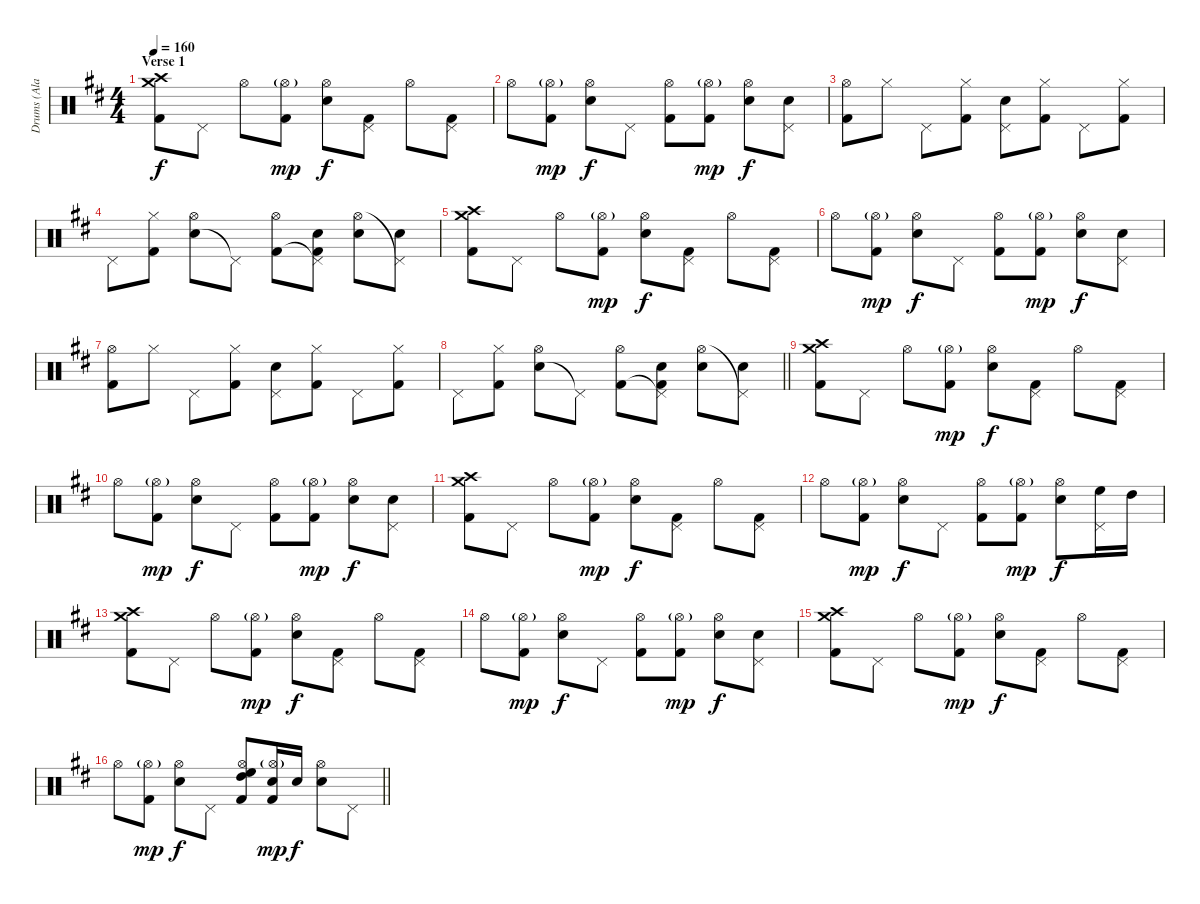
\track ("Drums (Ala Pyle)" "Drums (Ala") {instrument percussion}
\staff {score}
\articulation defaults
\ts (4 4)
\section ("" "Verse 1")
\tempo 160
\clef neutral
\ks d
("Crash medium (hit)" "Crash high (hit)" "Kick (hit) 2").8{dy f} "Pedal Hi-Hat (hit)".8 "Hi-Hat (open)".8 ("Hi-Hat (open)"{g} "Kick (hit) 2").8{dy mp} ("Snare (hit) 2" "Hi-Hat (open)").8{dy f} ("Pedal Hi-Hat (hit)" "Kick (hit) 2").8 "Hi-Hat (open)".8 ("Pedal Hi-Hat (hit)" "Kick (hit) 2").8 |
"Hi-Hat (open)".8 ("Hi-Hat (open)"{g} "Kick (hit) 2").8{dy mp} ("Snare (hit) 2" "Hi-Hat (open)").8{dy f} "Pedal Hi-Hat (hit)".8 ("Hi-Hat (open)" "Kick (hit) 2").8 ("Hi-Hat (open)"{g} "Kick (hit) 2").8{dy mp} ("Snare (hit) 2" "Hi-Hat (open)").8{dy f} ("Snare (hit) 2" "Pedal Hi-Hat (hit)").8 |
("Hi-Hat (open)" "Kick (hit) 2").8 "Hi-Hat (closed)".8 "Pedal Hi-Hat (hit)".8 ("Hi-Hat (closed)" "Kick (hit) 2").8 ("Snare (hit) 2" "Pedal Hi-Hat (hit)").8 ("Hi-Hat (closed)" "Kick (hit) 2").8 "Pedal Hi-Hat (hit)".8 ("Hi-Hat (closed)" "Kick (hit) 2").8 |
"Pedal Hi-Hat (hit)".8 ("Hi-Hat (closed)" "Kick (hit) 2").8 ("Snare (hit) 2" "Hi-Hat (open)").8 "Pedal Hi-Hat (hit)"{t}.8 ("Hi-Hat (open)" "Kick (hit) 2").8 ("Snare (hit) 2" "Pedal Hi-Hat (hit)"{t} "Kick (hit) 2").8 ("Snare (hit) 2" "Hi-Hat (open)").8 ("Snare (hit) 2" "Pedal Hi-Hat (hit)"{t}).8 |
("Crash medium (hit)" "Crash high (hit)" "Kick (hit) 2").8 "Pedal Hi-Hat (hit)".8 "Hi-Hat (open)".8 ("Hi-Hat (open)"{g} "Kick (hit) 2").8{dy mp} ("Snare (hit) 2" "Hi-Hat (open)").8{dy f} ("Pedal Hi-Hat (hit)" "Kick (hit) 2").8 "Hi-Hat (open)".8 ("Pedal Hi-Hat (hit)" "Kick (hit) 2").8 |
"Hi-Hat (open)".8 ("Hi-Hat (open)"{g} "Kick (hit) 2").8{dy mp} ("Snare (hit) 2" "Hi-Hat (open)").8{dy f} "Pedal Hi-Hat (hit)".8 ("Hi-Hat (open)" "Kick (hit) 2").8 ("Hi-Hat (open)"{g} "Kick (hit) 2").8{dy mp} ("Snare (hit) 2" "Hi-Hat (open)").8{dy f} ("Snare (hit) 2" "Pedal Hi-Hat (hit)").8 |
("Hi-Hat (open)" "Kick (hit) 2").8 "Hi-Hat (closed)".8 "Pedal Hi-Hat (hit)".8 ("Hi-Hat (closed)" "Kick (hit) 2").8 ("Snare (hit) 2" "Pedal Hi-Hat (hit)").8 ("Hi-Hat (closed)" "Kick (hit) 2").8 "Pedal Hi-Hat (hit)".8 ("Hi-Hat (closed)" "Kick (hit) 2").8 |
\barLineRight lightlight "Pedal Hi-Hat (hit)".8
("Hi-Hat (closed)" "Kick (hit) 2").8 ("Snare (hit) 2" "Hi-Hat (open)").8 "Pedal Hi-Hat (hit)"{t}.8 ("Hi-Hat (open)" "Kick (hit) 2").8 ("Snare (hit) 2" "Pedal Hi-Hat (hit)"{t} "Kick (hit) 2").8 ("Snare (hit) 2" "Hi-Hat (open)").8 ("Snare (hit) 2" "Pedal Hi-Hat (hit)"{t}).8 |
("Crash medium (hit)" "Crash high (hit)" "Kick (hit) 2").8 "Pedal Hi-Hat (hit)".8 "Hi-Hat (open)".8 ("Hi-Hat (open)"{g} "Kick (hit) 2").8{dy mp} ("Snare (hit) 2" "Hi-Hat (open)").8{dy f} ("Pedal Hi-Hat (hit)" "Kick (hit) 2").8 "Hi-Hat (open)".8 ("Pedal Hi-Hat (hit)" "Kick (hit) 2").8 |
"Hi-Hat (open)".8 ("Hi-Hat (open)"{g} "Kick (hit) 2").8{dy mp} ("Snare (hit) 2" "Hi-Hat (open)").8{dy f} "Pedal Hi-Hat (hit)".8 ("Hi-Hat (open)" "Kick (hit) 2").8 ("Hi-Hat (open)"{g} "Kick (hit) 2").8{dy mp} ("Snare (hit) 2" "Hi-Hat (open)").8{dy f} ("Snare (hit) 2" "Pedal Hi-Hat (hit)").8 |
("Crash medium (hit)" "Crash high (hit)" "Kick (hit) 2").8 "Pedal Hi-Hat (hit)".8 "Hi-Hat (open)".8 ("Hi-Hat (open)"{g} "Kick (hit) 2").8{dy mp} ("Snare (hit) 2" "Hi-Hat (open)").8{dy f} ("Pedal Hi-Hat (hit)" "Kick (hit) 2").8 "Hi-Hat (open)".8 ("Pedal Hi-Hat (hit)" "Kick (hit) 2").8 |
"Hi-Hat (open)".8 ("Hi-Hat (open)"{g} "Kick (hit) 2").8{dy mp} ("Snare (hit) 2" "Hi-Hat (open)").8{dy f} "Pedal Hi-Hat (hit)".8 ("Hi-Hat (open)" "Kick (hit) 2").8 ("Hi-Hat (open)"{g} "Kick (hit) 2").8{dy mp} ("Snare (hit) 2" "Hi-Hat (open)").8{dy f} ("Pedal Hi-Hat (hit)" "High Floor Tom (hit)").16 "High Tom (hit)".16 |
("Crash medium (hit)" "Crash high (hit)" "Kick (hit) 2").8 "Pedal Hi-Hat (hit)".8 "Hi-Hat (open)".8 ("Hi-Hat (open)"{g} "Kick (hit) 2").8{dy mp} ("Snare (hit) 2" "Hi-Hat (open)").8{dy f} ("Pedal Hi-Hat (hit)" "Kick (hit) 2").8 "Hi-Hat (open)".8 ("Pedal Hi-Hat (hit)" "Kick (hit) 2").8 |
"Hi-Hat (open)".8 ("Hi-Hat (open)"{g} "Kick (hit) 2").8{dy mp} ("Snare (hit) 2" "Hi-Hat (open)").8{dy f} "Pedal Hi-Hat (hit)".8 ("Hi-Hat (open)" "Kick (hit) 2").8 ("Hi-Hat (open)"{g} "Kick (hit) 2").8{dy mp} ("Snare (hit) 2" "Hi-Hat (open)").8{dy f} ("Snare (hit) 2" "Pedal Hi-Hat (hit)").8 |
("Crash medium (hit)" "Crash high (hit)" "Kick (hit) 2").8 "Pedal Hi-Hat (hit)".8 "Hi-Hat (open)".8 ("Hi-Hat (open)"{g} "Kick (hit) 2").8{dy mp} ("Snare (hit) 2" "Hi-Hat (open)").8{dy f} ("Pedal Hi-Hat (hit)" "Kick (hit) 2").8 "Hi-Hat (open)".8 ("Pedal Hi-Hat (hit)" "Kick (hit) 2").8 |
\barLineRight lightlight "Hi-Hat (open)".8
("Hi-Hat (open)"{g} "Kick (hit) 2").8{dy mp} ("Snare (hit) 2" "Hi-Hat (open)").8{dy f} "Pedal Hi-Hat (hit)".8 ("High Floor Tom (hit)" "Hi-Hat (open)" "High Tom (hit)" "Kick (hit) 2").8 ("Snare (hit) 2" "Hi-Hat (open)"{g} "Kick (hit) 2").16{dy mp} "Snare (hit) 2".16{dy f} ("Snare (hit) 2" "Hi-Hat (open)").8 "Pedal Hi-Hat (hit)".8
